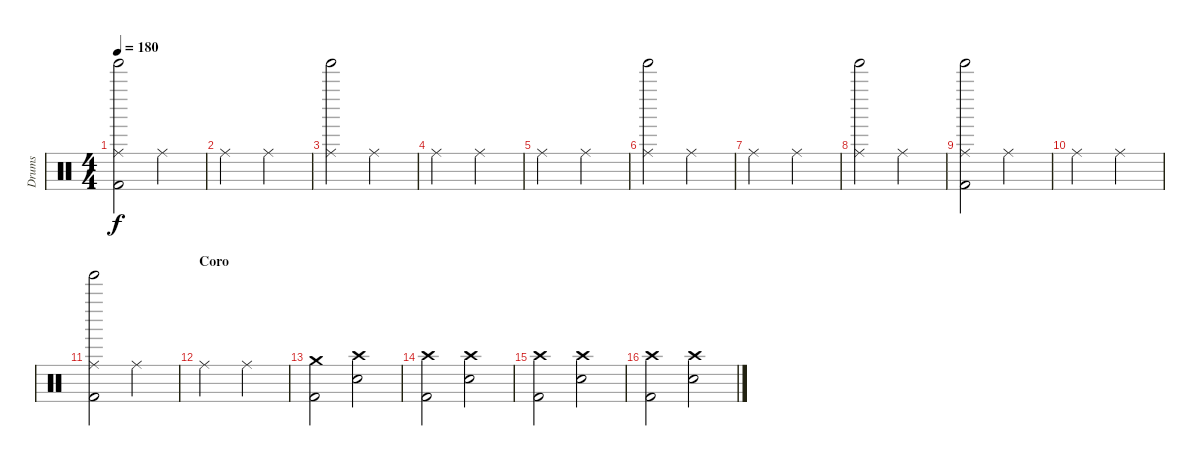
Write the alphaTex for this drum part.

\track ("Drums" "Drums") {instrument percussion}
\staff {score}
\articulation defaults
\ts (4 4)
\tempo 180
\clef neutral
\ks c
("Ride (middle)" "Kick (hit) 2" "Tinkle Bell (hit)").2{dy f} "Ride (middle)".2 |
"Ride (middle)".2 "Ride (middle)".2 |
("Ride (middle)" "Tinkle Bell (hit)").2 "Ride (middle)".2 |
"Ride (middle)".2 "Ride (middle)".2 |
"Ride (middle)".2 "Ride (middle)".2 |
("Ride (middle)" "Tinkle Bell (hit)").2 "Ride (middle)".2 |
"Ride (middle)".2 "Ride (middle)".2 |
("Ride (middle)" "Tinkle Bell (hit)").2 "Ride (middle)".2 |
("Ride (middle)" "Kick (hit) 2" "Tinkle Bell (hit)").2 "Ride (middle)".2 |
"Ride (middle)".2 "Ride (middle)".2 |
("Ride (middle)" "Kick (hit) 2" "Tinkle Bell (hit)").2 "Ride (middle)".2 |
\section ("" "Coro")
"Ride (middle)".2 "Ride (middle)".2 |
("Crash medium (hit)" "Kick (hit) 2").2 ("Crash high (hit)" "Snare (hit) 2").2 |
("Crash high (hit)" "Kick (hit) 2").2 ("Crash high (hit)" "Snare (hit) 2").2 |
("Crash high (hit)" "Kick (hit) 2").2 ("Crash high (hit)" "Snare (hit) 2").2 |
("Kick (hit) 2" "Crash high (hit)").2 ("Crash high (hit)" "Snare (hit) 2").2
